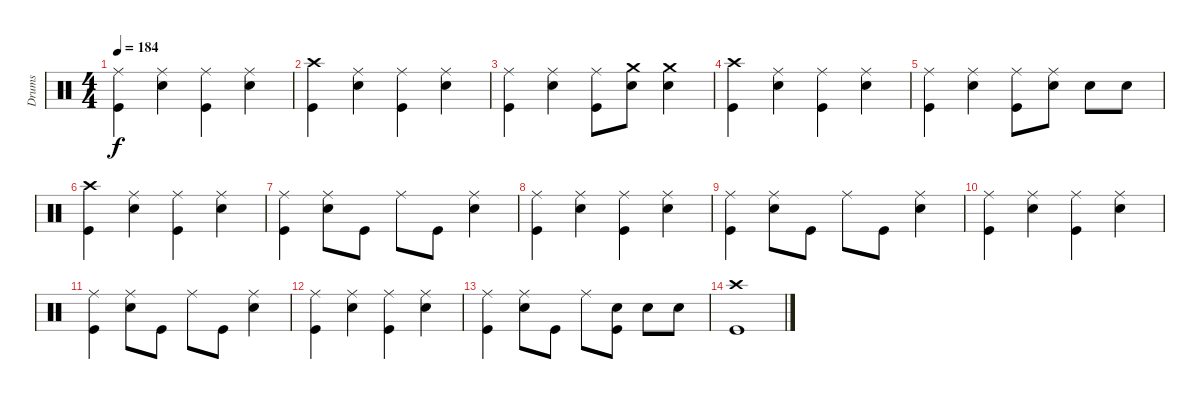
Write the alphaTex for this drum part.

\track ("Drums" "Drums") {instrument percussion}
\staff {score}
\articulation defaults
\ts (4 4)
\tempo 184
\clef neutral
\ks c
("Ride (middle)" "Kick (hit)").4{dy f} ("Ride (middle)" "Electric Snare (hit)").4 ("Ride (middle)" "Kick (hit)").4 ("Ride (middle)" "Electric Snare (hit)").4 |
("Crash high (hit)" "Kick (hit)").4 ("Ride (middle)" "Electric Snare (hit)").4 ("Ride (middle)" "Kick (hit)").4 ("Ride (middle)" "Electric Snare (hit)").4 |
("Ride (middle)" "Kick (hit)").4 ("Ride (middle)" "Electric Snare (hit)").4 ("Ride (middle)" "Kick (hit)").8 ("Crash medium (hit)" "Electric Snare (hit)").8 ("Crash medium (hit)" "Electric Snare (hit)").4 |
("Crash high (hit)" "Kick (hit)").4 ("Ride (middle)" "Electric Snare (hit)").4 ("Ride (middle)" "Kick (hit)").4 ("Ride (middle)" "Electric Snare (hit)").4 |
("Ride (middle)" "Kick (hit)").4 ("Ride (middle)" "Electric Snare (hit)").4 ("Ride (middle)" "Kick (hit)").8 ("Ride (middle)" "Electric Snare (hit)").8 "Electric Snare (hit)".8 "Electric Snare (hit)".8 |
("Crash high (hit)" "Kick (hit)").4 ("Ride (middle)" "Electric Snare (hit)").4 ("Ride (middle)" "Kick (hit)").4 ("Ride (middle)" "Electric Snare (hit)").4 |
("Ride (middle)" "Kick (hit)").4 ("Ride (middle)" "Electric Snare (hit)").8 "Kick (hit)".8 "Ride (middle)".8 "Kick (hit)".8 ("Ride (middle)" "Electric Snare (hit)").4 |
("Ride (middle)" "Kick (hit)").4 ("Ride (middle)" "Electric Snare (hit)").4 ("Ride (middle)" "Kick (hit)").4 ("Ride (middle)" "Electric Snare (hit)").4 |
("Ride (middle)" "Kick (hit)").4 ("Ride (middle)" "Electric Snare (hit)").8 "Kick (hit)".8 "Ride (middle)".8 "Kick (hit)".8 ("Ride (middle)" "Electric Snare (hit)").4 |
("Ride (middle)" "Kick (hit)").4 ("Ride (middle)" "Electric Snare (hit)").4 ("Ride (middle)" "Kick (hit)").4 ("Ride (middle)" "Electric Snare (hit)").4 |
("Ride (middle)" "Kick (hit)").4 ("Ride (middle)" "Electric Snare (hit)").8 "Kick (hit)".8 "Ride (middle)".8 "Kick (hit)".8 ("Ride (middle)" "Electric Snare (hit)").4 |
("Ride (middle)" "Kick (hit)").4 ("Ride (middle)" "Electric Snare (hit)").4 ("Ride (middle)" "Kick (hit)").4 ("Ride (middle)" "Electric Snare (hit)").4 |
("Ride (middle)" "Kick (hit)").4 ("Ride (middle)" "Electric Snare (hit)").8 "Kick (hit)".8 "Ride (middle)".8 ("Electric Snare (hit)" "Kick (hit)").8 "Electric Snare (hit)".8 "Electric Snare (hit)".8 |
("Crash high (hit)" "Kick (hit)").1
